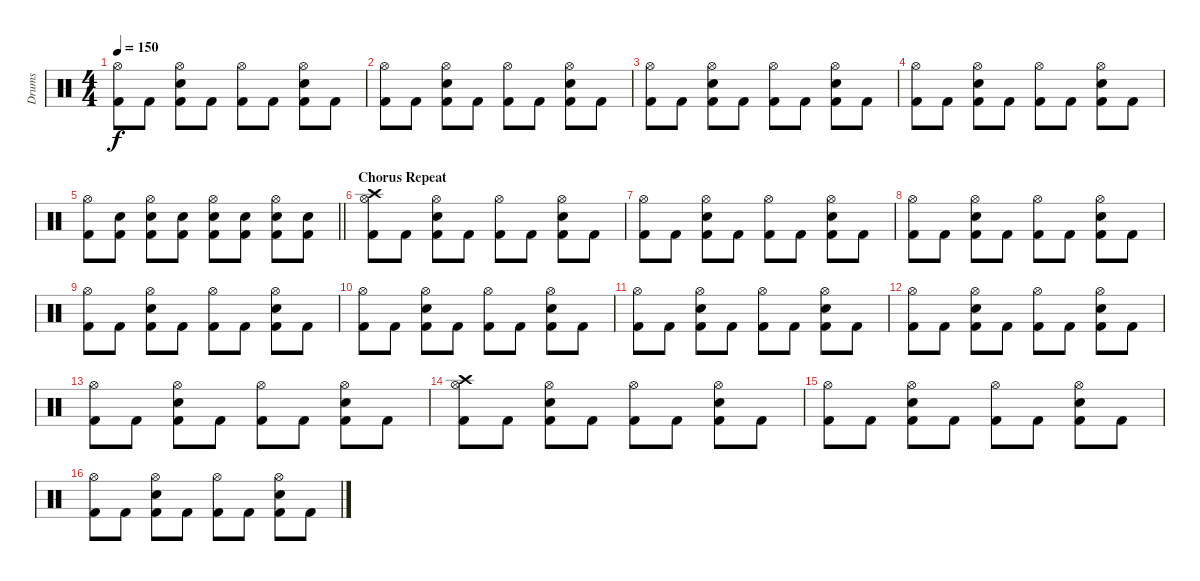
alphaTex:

\track ("Drums" "Drums") {instrument percussion}
\staff {score}
\articulation defaults
\ts (4 4)
\tempo 150
\clef neutral
\ks c
("Hi-Hat (open)" "Kick (hit) 2").8{dy f} "Kick (hit) 2".8 ("Hi-Hat (open)" "Snare (hit) 2" "Kick (hit) 2").8 "Kick (hit) 2".8 ("Hi-Hat (open)" "Kick (hit) 2").8 "Kick (hit) 2".8 ("Hi-Hat (open)" "Snare (hit) 2" "Kick (hit) 2").8 "Kick (hit) 2".8 |
("Hi-Hat (open)" "Kick (hit) 2").8 "Kick (hit) 2".8 ("Hi-Hat (open)" "Snare (hit) 2" "Kick (hit) 2").8 "Kick (hit) 2".8 ("Hi-Hat (open)" "Kick (hit) 2").8 "Kick (hit) 2".8 ("Hi-Hat (open)" "Snare (hit) 2" "Kick (hit) 2").8 "Kick (hit) 2".8 |
("Hi-Hat (open)" "Kick (hit) 2").8 "Kick (hit) 2".8 ("Hi-Hat (open)" "Snare (hit) 2" "Kick (hit) 2").8 "Kick (hit) 2".8 ("Hi-Hat (open)" "Kick (hit) 2").8 "Kick (hit) 2".8 ("Hi-Hat (open)" "Snare (hit) 2" "Kick (hit) 2").8 "Kick (hit) 2".8 |
("Hi-Hat (open)" "Kick (hit) 2").8 "Kick (hit) 2".8 ("Hi-Hat (open)" "Snare (hit) 2" "Kick (hit) 2").8 "Kick (hit) 2".8 ("Hi-Hat (open)" "Kick (hit) 2").8 "Kick (hit) 2".8 ("Hi-Hat (open)" "Snare (hit) 2" "Kick (hit) 2").8 "Kick (hit) 2".8 |
\barLineRight lightlight
("Hi-Hat (open)" "Kick (hit) 2").8 ("Snare (hit) 2" "Kick (hit) 2").8 ("Hi-Hat (open)" "Snare (hit) 2" "Kick (hit) 2").8 ("Snare (hit) 2" "Kick (hit) 2").8 ("Hi-Hat (open)" "Snare (hit) 2" "Kick (hit) 2").8 ("Snare (hit) 2" "Kick (hit) 2").8 ("Hi-Hat (open)" "Snare (hit) 2" "Kick (hit) 2").8 ("Snare (hit) 2" "Kick (hit) 2").8 |
\section ("" "Chorus Repeat")
("Crash high (hit)" "Hi-Hat (open)" "Kick (hit) 2").8 "Kick (hit) 2".8 ("Hi-Hat (open)" "Snare (hit) 2" "Kick (hit) 2").8 "Kick (hit) 2".8 ("Hi-Hat (open)" "Kick (hit) 2").8 "Kick (hit) 2".8 ("Hi-Hat (open)" "Snare (hit) 2" "Kick (hit) 2").8 "Kick (hit) 2".8 |
("Hi-Hat (open)" "Kick (hit) 2").8 "Kick (hit) 2".8 ("Hi-Hat (open)" "Snare (hit) 2" "Kick (hit) 2").8 "Kick (hit) 2".8 ("Hi-Hat (open)" "Kick (hit) 2").8 "Kick (hit) 2".8 ("Hi-Hat (open)" "Snare (hit) 2" "Kick (hit) 2").8 "Kick (hit) 2".8 |
("Hi-Hat (open)" "Kick (hit) 2").8 "Kick (hit) 2".8 ("Hi-Hat (open)" "Snare (hit) 2" "Kick (hit) 2").8 "Kick (hit) 2".8 ("Hi-Hat (open)" "Kick (hit) 2").8 "Kick (hit) 2".8 ("Hi-Hat (open)" "Snare (hit) 2" "Kick (hit) 2").8 "Kick (hit) 2".8 |
("Hi-Hat (open)" "Kick (hit) 2").8 "Kick (hit) 2".8 ("Hi-Hat (open)" "Snare (hit) 2" "Kick (hit) 2").8 "Kick (hit) 2".8 ("Hi-Hat (open)" "Kick (hit) 2").8 "Kick (hit) 2".8 ("Hi-Hat (open)" "Snare (hit) 2" "Kick (hit) 2").8 "Kick (hit) 2".8 |
("Hi-Hat (open)" "Kick (hit) 2").8 "Kick (hit) 2".8 ("Hi-Hat (open)" "Snare (hit) 2" "Kick (hit) 2").8 "Kick (hit) 2".8 ("Hi-Hat (open)" "Kick (hit) 2").8 "Kick (hit) 2".8 ("Hi-Hat (open)" "Snare (hit) 2" "Kick (hit) 2").8 "Kick (hit) 2".8 |
("Hi-Hat (open)" "Kick (hit) 2").8 "Kick (hit) 2".8 ("Hi-Hat (open)" "Snare (hit) 2" "Kick (hit) 2").8 "Kick (hit) 2".8 ("Hi-Hat (open)" "Kick (hit) 2").8 "Kick (hit) 2".8 ("Hi-Hat (open)" "Snare (hit) 2" "Kick (hit) 2").8 "Kick (hit) 2".8 |
("Hi-Hat (open)" "Kick (hit) 2").8 "Kick (hit) 2".8 ("Hi-Hat (open)" "Snare (hit) 2" "Kick (hit) 2").8 "Kick (hit) 2".8 ("Hi-Hat (open)" "Kick (hit) 2").8 "Kick (hit) 2".8 ("Hi-Hat (open)" "Snare (hit) 2" "Kick (hit) 2").8 "Kick (hit) 2".8 |
("Hi-Hat (open)" "Kick (hit) 2").8 "Kick (hit) 2".8 ("Hi-Hat (open)" "Snare (hit) 2" "Kick (hit) 2").8 "Kick (hit) 2".8 ("Hi-Hat (open)" "Kick (hit) 2").8 "Kick (hit) 2".8 ("Hi-Hat (open)" "Snare (hit) 2" "Kick (hit) 2").8 "Kick (hit) 2".8 |
("Crash high (hit)" "Hi-Hat (open)" "Kick (hit) 2").8 "Kick (hit) 2".8 ("Hi-Hat (open)" "Snare (hit) 2" "Kick (hit) 2").8 "Kick (hit) 2".8 ("Hi-Hat (open)" "Kick (hit) 2").8 "Kick (hit) 2".8 ("Hi-Hat (open)" "Snare (hit) 2" "Kick (hit) 2").8 "Kick (hit) 2".8 |
("Hi-Hat (open)" "Kick (hit) 2").8 "Kick (hit) 2".8 ("Hi-Hat (open)" "Snare (hit) 2" "Kick (hit) 2").8 "Kick (hit) 2".8 ("Hi-Hat (open)" "Kick (hit) 2").8 "Kick (hit) 2".8 ("Hi-Hat (open)" "Snare (hit) 2" "Kick (hit) 2").8 "Kick (hit) 2".8 |
("Hi-Hat (open)" "Kick (hit) 2").8 "Kick (hit) 2".8 ("Hi-Hat (open)" "Snare (hit) 2" "Kick (hit) 2").8 "Kick (hit) 2".8 ("Hi-Hat (open)" "Kick (hit) 2").8 "Kick (hit) 2".8 ("Hi-Hat (open)" "Snare (hit) 2" "Kick (hit) 2").8 "Kick (hit) 2".8
